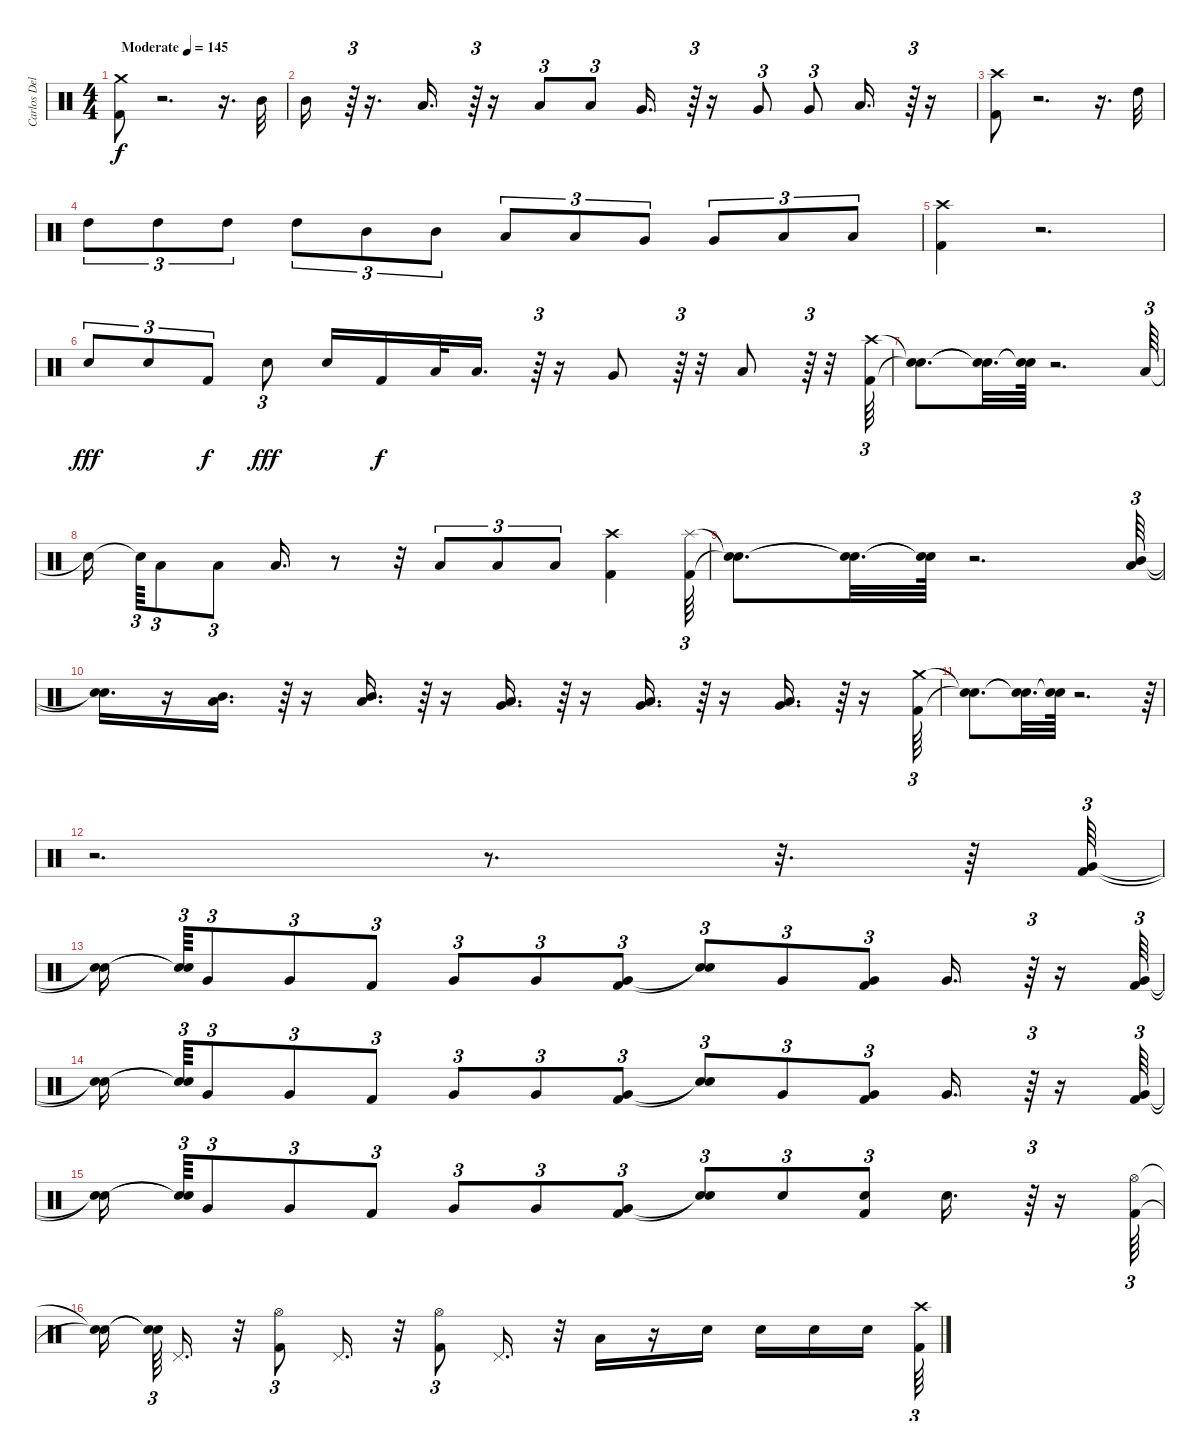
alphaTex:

\track ("Carlos Delgado" "Carlos Del") {instrument percussion}
\staff {score}
\articulation defaults
\ts (4 4)
\tempo (145 "Moderate")
\clef neutral
\ks c
("Crash medium (hit)" "Kick (hit) 2").8{dy f} r.2{d} r.16{d} "Mid Tom (hit)".32 |
"Mid Tom (hit)".16 r.64{tu (3 2)} r.16{d} "Low Tom (hit)".16{d} r.64{tu (3 2)} r.16 "Low Tom (hit)".8{tu (3 2)} "Low Tom (hit)".8{tu (3 2)} "Very Low Tom (hit)".16{d} r.64{tu (3 2)} r.16 "Very Low Tom (hit)".8{tu (3 2)} "Very Low Tom (hit)".8{tu (3 2)} "Low Floor Tom (hit)".16{d} r.64{tu (3 2)} r.16 |
("Kick (hit) 2" "Crash high (hit)").8 r.2{d} r.16{d} "High Tom (hit)".32 |
"High Tom (hit)".8{tu (3 2)} "High Tom (hit)".8{tu (3 2)} "High Tom (hit)".8{tu (3 2)} "High Tom (hit)".8{tu (3 2)} "Mid Tom (hit)".8{tu (3 2)} "Mid Tom (hit)".8{tu (3 2)} "Low Tom (hit)".8{tu (3 2)} "Low Tom (hit)".8{tu (3 2)} "Very Low Tom (hit)".8{tu (3 2)} "Very Low Tom (hit)".8{tu (3 2)} "Low Floor Tom (hit)".8{tu (3 2)} "Low Floor Tom (hit)".8{tu (3 2)} |
("Crash high (hit)" "Kick (hit) 2").4 r.2{d} |
"Electric Snare (hit)".8{tu (3 2) dy fff} "Electric Snare (hit)".8{tu (3 2)} "Kick (hit) 2".8{tu (3 2) dy f} "Electric Snare (hit)".8{tu (3 2) dy fff} "Electric Snare (hit)".16 "Kick (hit) 2".16{dy f} "Low Tom (hit)".32 "Low Tom (hit)".16{d} r.64{tu (3 2)} r.16 "Very Low Tom (hit)".8 r.64{tu (3 2)} r.32 "Low Floor Tom (hit)".8 r.64{tu (3 2)} r.32 ("Crash high (hit)" "Kick (hit) 2").64{tu (3 2)} |
("Snare (hit)"{t} "Snare (hit)"{t}).8{d} ("Snare (hit)"{t} "Snare (hit)"{t}).32{d} ("Snare (hit)"{t} "Snare (hit)"{t}).64 r.2{d} "Low Tom (hit)".64{tu (3 2)} |
"Snare (hit)"{t}.16{beam splitsecondary} "Snare (hit)"{t}.64{tu (3 2)} "Low Tom (hit)".8{tu (3 2)} "Low Tom (hit)".8{tu (3 2)} "Low Tom (hit)".16{d} r.8 r.32 "Low Floor Tom (hit)".8{tu (3 2)} "Low Floor Tom (hit)".8{tu (3 2)} "Low Floor Tom (hit)".8{tu (3 2)} ("Crash high (hit)" "Kick (hit) 2").4 ("Splash (hit)" "Kick (hit) 2").64{tu (3 2)} |
("Snare (hit)"{t} "Snare (hit)"{t}).8{d} ("Snare (hit)"{t} "Snare (hit)"{t}).32{d} ("Snare (hit)"{t} "Snare (hit)"{t}).64 r.2{d} ("Low Tom (hit)" "Mid Tom (hit)").64{tu (3 2)} |
("Snare (hit)"{t} "Snare (hit)"{t}).16{d} r.16 ("Low Tom (hit)" "Mid Tom (hit)").16{d} r.64{tu (3 2)} r.16 ("Low Tom (hit)" "Mid Tom (hit)").16{d} r.64{tu (3 2)} r.16 ("Very Low Tom (hit)" "Low Tom (hit)").16{d} r.64{tu (3 2)} r.16 ("Low Tom (hit)" "Very Low Tom (hit)").16{d} r.64{tu (3 2)} r.16 ("Very Low Tom (hit)" "Low Floor Tom (hit)").16{d} r.64{tu (3 2)} r.16 ("Crash medium (hit)" "Kick (hit) 2").64{tu (3 2)} |
("Snare (hit)"{t} "Snare (hit)"{t}).8{d} ("Snare (hit)"{t} "Snare (hit)"{t}).32{d} ("Snare (hit)"{t} "Snare (hit)"{t}).64 r.2{d} r.64{tu (3 2)} |
r.2{d} r.8{d} r.32{d} r.64 ("Very Low Tom (hit)" "Kick (hit) 2").64{tu (3 2)} |
("Snare (hit)"{t} "Snare (hit)"{t}).16{beam splitsecondary} ("Snare (hit)"{t} "Snare (hit)"{t}).64{tu (3 2)} "Very Low Tom (hit)".8{tu (3 2)} "Very Low Tom (hit)".8{tu (3 2)} "Kick (hit) 2".8{tu (3 2)} "Very Low Tom (hit)".8{tu (3 2)} "Very Low Tom (hit)".8{tu (3 2)} ("Kick (hit) 2" "Very Low Tom (hit)").8{tu (3 2)} ("Snare (hit)"{t} "Snare (hit)"{t}).8{tu (3 2)} "Very Low Tom (hit)".8{tu (3 2)} ("Very Low Tom (hit)" "Kick (hit) 2").8{tu (3 2)} "Very Low Tom (hit)".16{d} r.64{tu (3 2)} r.16 ("Very Low Tom (hit)" "Kick (hit) 2").64{tu (3 2)} |
("Snare (hit)"{t} "Snare (hit)"{t}).16{beam splitsecondary} ("Snare (hit)"{t} "Snare (hit)"{t}).64{tu (3 2)} "Very Low Tom (hit)".8{tu (3 2)} "Very Low Tom (hit)".8{tu (3 2)} "Kick (hit) 2".8{tu (3 2)} "Very Low Tom (hit)".8{tu (3 2)} "Very Low Tom (hit)".8{tu (3 2)} ("Very Low Tom (hit)" "Kick (hit) 2").8{tu (3 2)} ("Snare (hit)"{t} "Snare (hit)"{t}).8{tu (3 2)} "Very Low Tom (hit)".8{tu (3 2)} ("Kick (hit) 2" "Very Low Tom (hit)").8{tu (3 2)} "Very Low Tom (hit)".16{d} r.64{tu (3 2)} r.16 ("Kick (hit) 2" "Very Low Tom (hit)").64{tu (3 2)} |
("Snare (hit)"{t} "Snare (hit)"{t}).16{beam splitsecondary} ("Snare (hit)"{t} "Snare (hit)"{t}).64{tu (3 2)} "Very Low Tom (hit)".8{tu (3 2)} "Very Low Tom (hit)".8{tu (3 2)} "Kick (hit) 2".8{tu (3 2)} "Very Low Tom (hit)".8{tu (3 2)} "Very Low Tom (hit)".8{tu (3 2)} ("Very Low Tom (hit)" "Kick (hit) 2").8{tu (3 2)} ("Snare (hit)"{t} "Snare (hit)"{t}).8{tu (3 2)} "Electric Snare (hit)".8{tu (3 2)} ("Kick (hit) 2" "Electric Snare (hit)").8{tu (3 2)} "Electric Snare (hit)".16{d} r.64{tu (3 2)} r.16 ("Hi-Hat (open)" "Kick (hit) 2").64{tu (3 2)} |
("Snare (hit)"{t} "Snare (hit)"{t}).16{beam splitsecondary} ("Snare (hit)"{t} "Snare (hit)"{t}).64{tu (3 2)} "Pedal Hi-Hat (hit)".16{d} r.32 ("Kick (hit) 2" "Hi-Hat (open)").8{tu (3 2)} "Pedal Hi-Hat (hit)".16{d} r.32 ("Kick (hit) 2" "Hi-Hat (open)").8{tu (3 2)} "Pedal Hi-Hat (hit)".16{d} r.32 "Low Floor Tom (hit)".16 r.16 "Electric Snare (hit)".16 "Electric Snare (hit)".16 "Electric Snare (hit)".16 "Electric Snare (hit)".16{beam splitsecondary} ("Kick (hit) 2" "Crash high (hit)").64{tu (3 2)}
